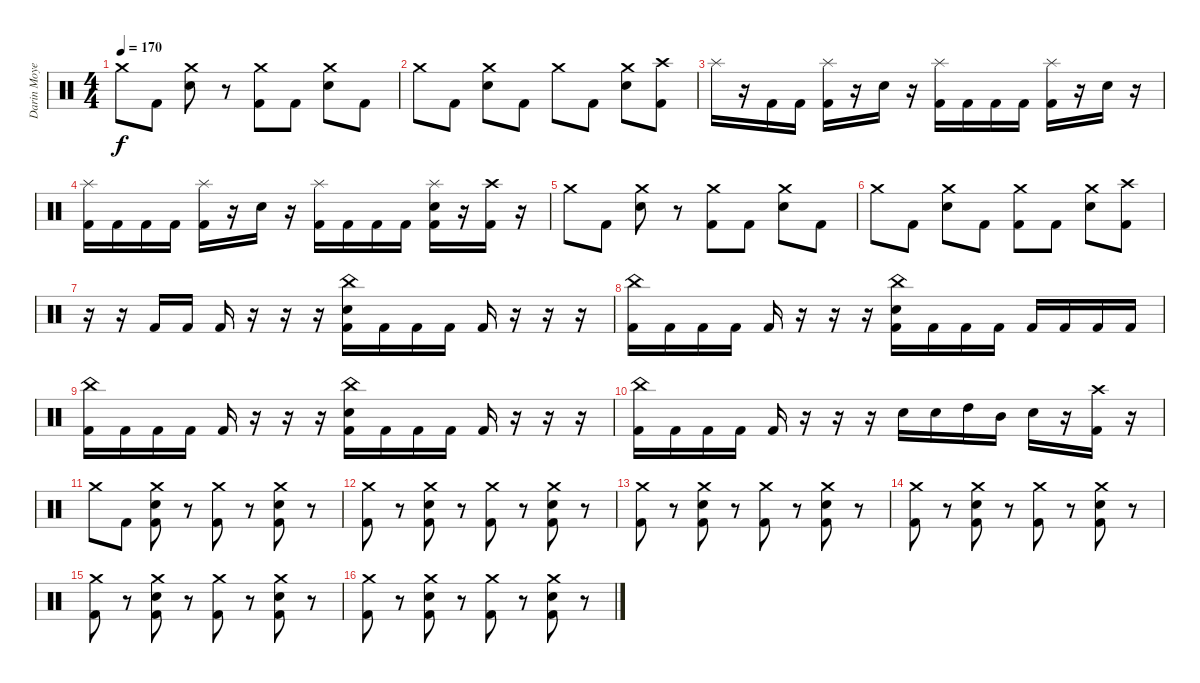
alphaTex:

\track ("Darin Moyen" "Darin Moye") {instrument percussion}
\staff {score}
\articulation defaults
\ts (4 4)
\tempo 170
\clef neutral
\ks c "Crash medium (hit)".8{dy f} "Kick (hit) 2".8
("Crash medium (hit)" "Electric Snare (hit)").8 r.8 ("Crash medium (hit)" "Kick (hit) 2").8 "Kick (hit) 2".8 ("Crash medium (hit)" "Electric Snare (hit)").8 "Kick (hit) 2".8 |
"Crash medium (hit)".8 "Kick (hit) 2".8 ("Crash medium (hit)" "Electric Snare (hit)").8 "Kick (hit) 2".8 "Crash medium (hit)".8 "Kick (hit) 2".8 ("Crash medium (hit)" "Electric Snare (hit)").8 ("Crash high (hit)" "Kick (hit) 2").8 |
"Splash (hit)".16 r.16 "Kick (hit) 2".16 "Kick (hit) 2".16 ("Splash (hit)" "Kick (hit) 2").16 r.16 "Electric Snare (hit)".16 r.16 ("Splash (hit)" "Kick (hit) 2").16 "Kick (hit) 2".16 "Kick (hit) 2".16 "Kick (hit) 2".16 ("Splash (hit)" "Kick (hit) 2").16 r.16 "Electric Snare (hit)".16 r.16 |
("Splash (hit)" "Kick (hit) 2").16 "Kick (hit) 2".16 "Kick (hit) 2".16 "Kick (hit) 2".16 ("Splash (hit)" "Kick (hit) 2").16 r.16 "Electric Snare (hit)".16 r.16 ("Splash (hit)" "Kick (hit) 2").16 "Kick (hit) 2".16 "Kick (hit) 2".16 "Kick (hit) 2".16 ("Splash (hit)" "Electric Snare (hit)" "Kick (hit) 2").16 r.16 ("Crash high (hit)" "Kick (hit) 2").16 r.16 |
"Crash medium (hit)".8 "Kick (hit) 2".8 ("Crash medium (hit)" "Electric Snare (hit)").8 r.8 ("Crash medium (hit)" "Kick (hit) 2").8 "Kick (hit) 2".8 ("Crash medium (hit)" "Electric Snare (hit)").8 "Kick (hit) 2".8 |
"Crash medium (hit)".8 "Kick (hit) 2".8 ("Crash medium (hit)" "Electric Snare (hit)").8 "Kick (hit) 2".8 ("Crash medium (hit)" "Kick (hit) 2").8 "Kick (hit) 2".8 ("Crash medium (hit)" "Electric Snare (hit)").8 ("Crash high (hit)" "Kick (hit) 2").8 |
r.16 r.16 "Kick (hit) 2".16 "Kick (hit) 2".16 "Kick (hit) 2".16 r.16 r.16 r.16 ("China (hit)" "Electric Snare (hit)" "Kick (hit) 2").16 "Kick (hit) 2".16 "Kick (hit) 2".16 "Kick (hit) 2".16 "Kick (hit) 2".16 r.16 r.16 r.16 |
("China (hit)" "Kick (hit) 2").16 "Kick (hit) 2".16 "Kick (hit) 2".16 "Kick (hit) 2".16 "Kick (hit) 2".16 r.16 r.16 r.16 ("China (hit)" "Electric Snare (hit)" "Kick (hit) 2").16 "Kick (hit) 2".16 "Kick (hit) 2".16 "Kick (hit) 2".16 "Kick (hit) 2".16 "Kick (hit) 2".16 "Kick (hit) 2".16 "Kick (hit) 2".16 |
("China (hit)" "Kick (hit) 2").16 "Kick (hit) 2".16 "Kick (hit) 2".16 "Kick (hit) 2".16 "Kick (hit) 2".16 r.16 r.16 r.16 ("China (hit)" "Electric Snare (hit)" "Kick (hit) 2").16 "Kick (hit) 2".16 "Kick (hit) 2".16 "Kick (hit) 2".16 "Kick (hit) 2".16 r.16 r.16 r.16 |
("China (hit)" "Kick (hit) 2").16 "Kick (hit) 2".16 "Kick (hit) 2".16 "Kick (hit) 2".16 "Kick (hit) 2".16 r.16 r.16 r.16 "Electric Snare (hit)".16 "Electric Snare (hit)".16 "High Tom (hit)".16 "Mid Tom (hit)".16 "Electric Snare (hit)".16 r.16 ("Crash high (hit)" "Kick (hit) 2").16 r.16 |
"Crash medium (hit)".8 "Kick (hit) 2".8 ("Crash medium (hit)" "Electric Snare (hit)" "Kick (hit) 2").8 r.8 ("Crash medium (hit)" "Kick (hit) 2").8 r.8 ("Crash medium (hit)" "Electric Snare (hit)" "Kick (hit) 2").8 r.8 |
("Crash medium (hit)" "Kick (hit) 2").8 r.8 ("Crash medium (hit)" "Electric Snare (hit)" "Kick (hit) 2").8 r.8 ("Crash medium (hit)" "Kick (hit) 2").8 r.8 ("Crash medium (hit)" "Electric Snare (hit)" "Kick (hit) 2").8 r.8 |
("Crash medium (hit)" "Kick (hit) 2").8 r.8 ("Crash medium (hit)" "Electric Snare (hit)" "Kick (hit) 2").8 r.8 ("Crash medium (hit)" "Kick (hit) 2").8 r.8 ("Crash medium (hit)" "Electric Snare (hit)" "Kick (hit) 2").8 r.8 |
("Crash medium (hit)" "Kick (hit) 2").8 r.8 ("Crash medium (hit)" "Electric Snare (hit)" "Kick (hit) 2").8 r.8 ("Crash medium (hit)" "Kick (hit) 2").8 r.8 ("Crash medium (hit)" "Electric Snare (hit)" "Kick (hit) 2").8 r.8 |
("Crash medium (hit)" "Kick (hit) 2").8 r.8 ("Crash medium (hit)" "Electric Snare (hit)" "Kick (hit) 2").8 r.8 ("Crash medium (hit)" "Kick (hit) 2").8 r.8 ("Crash medium (hit)" "Electric Snare (hit)" "Kick (hit) 2").8 r.8 |
("Crash medium (hit)" "Kick (hit) 2").8 r.8 ("Crash medium (hit)" "Electric Snare (hit)" "Kick (hit) 2").8 r.8 ("Crash medium (hit)" "Kick (hit) 2").8 r.8 ("Crash medium (hit)" "Electric Snare (hit)" "Kick (hit) 2").8 r.8
